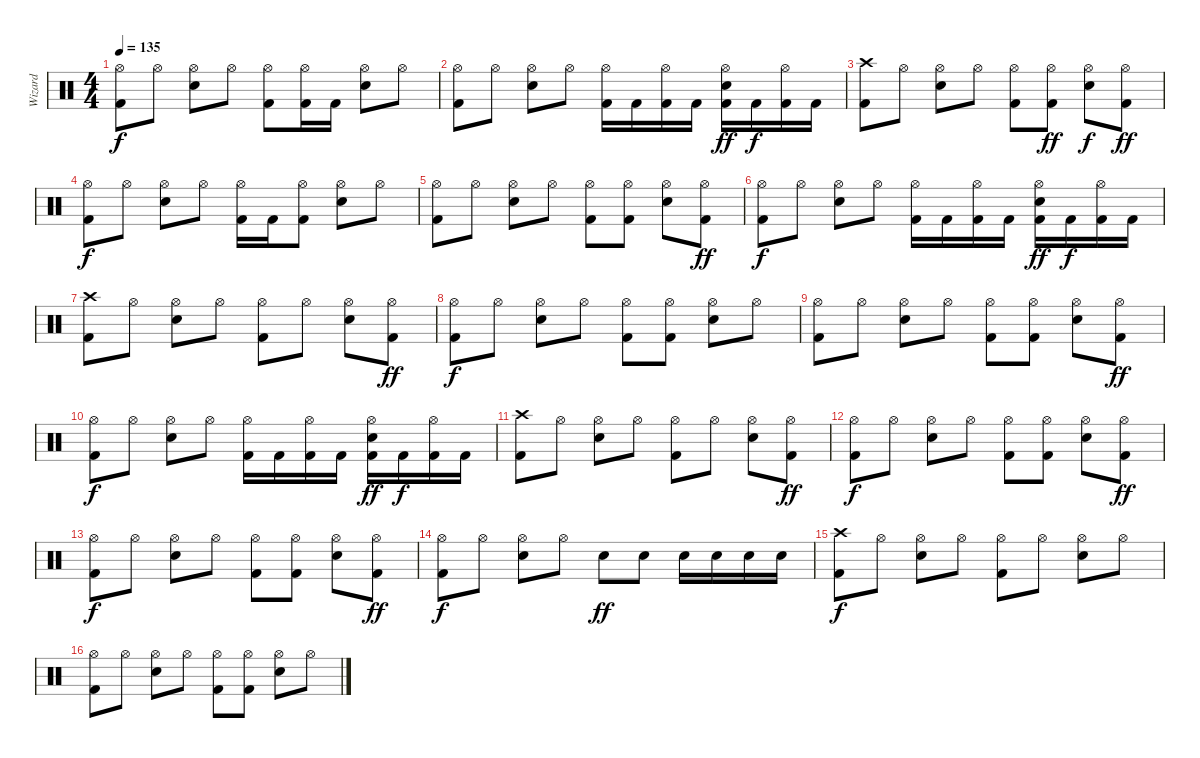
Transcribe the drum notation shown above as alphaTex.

\track ("Wizard" "Wizard") {instrument percussion}
\staff {score}
\articulation defaults
\ts (4 4)
\tempo 135
\clef neutral
\ks c
("Hi-Hat (open)" "Kick (hit) 2").8{dy f} "Hi-Hat (open)".8 ("Hi-Hat (open)" "Snare (hit) 2").8 "Hi-Hat (open)".8 ("Hi-Hat (open)" "Kick (hit) 2").8 ("Hi-Hat (open)" "Kick (hit) 2").16 "Kick (hit) 2".16 ("Hi-Hat (open)" "Snare (hit) 2").8 "Hi-Hat (open)".8 |
("Hi-Hat (open)" "Kick (hit) 2").8 "Hi-Hat (open)".8 ("Hi-Hat (open)" "Snare (hit) 2").8 "Hi-Hat (open)".8 ("Hi-Hat (open)" "Kick (hit) 2").16 "Kick (hit) 2".16 ("Hi-Hat (open)" "Kick (hit) 2").16 "Kick (hit) 2".16 ("Hi-Hat (open)" "Snare (hit) 2" "Kick (hit) 2").16{dy ff} "Kick (hit) 2".16{dy f} ("Hi-Hat (open)" "Kick (hit) 2").16 "Kick (hit) 2".16 |
("Crash high (hit)" "Kick (hit) 2").8 "Hi-Hat (open)".8 ("Hi-Hat (open)" "Snare (hit) 2").8 "Hi-Hat (open)".8 ("Hi-Hat (open)" "Kick (hit) 2").8 ("Hi-Hat (open)" "Kick (hit) 2").8{dy ff} ("Hi-Hat (open)" "Snare (hit) 2").8{dy f} ("Hi-Hat (open)" "Kick (hit) 2").8{dy ff} |
("Hi-Hat (open)" "Kick (hit) 2").8{dy f} "Hi-Hat (open)".8 ("Hi-Hat (open)" "Snare (hit) 2").8 "Hi-Hat (open)".8 ("Hi-Hat (open)" "Kick (hit) 2").16 "Kick (hit) 2".16 ("Hi-Hat (open)" "Kick (hit) 2").8 ("Hi-Hat (open)" "Snare (hit) 2").8 "Hi-Hat (open)".8 |
("Hi-Hat (open)" "Kick (hit) 2").8 "Hi-Hat (open)".8 ("Hi-Hat (open)" "Snare (hit) 2").8 "Hi-Hat (open)".8 ("Hi-Hat (open)" "Kick (hit) 2").8 ("Hi-Hat (open)" "Kick (hit) 2").8 ("Hi-Hat (open)" "Snare (hit) 2").8 ("Hi-Hat (open)" "Kick (hit) 2").8{dy ff} |
("Hi-Hat (open)" "Kick (hit) 2").8{dy f} "Hi-Hat (open)".8 ("Hi-Hat (open)" "Snare (hit) 2").8 "Hi-Hat (open)".8 ("Hi-Hat (open)" "Kick (hit) 2").16 "Kick (hit) 2".16 ("Hi-Hat (open)" "Kick (hit) 2").16 "Kick (hit) 2".16 ("Hi-Hat (open)" "Snare (hit) 2" "Kick (hit) 2").16{dy ff} "Kick (hit) 2".16{dy f} ("Hi-Hat (open)" "Kick (hit) 2").16 "Kick (hit) 2".16 |
("Crash high (hit)" "Kick (hit) 2").8 "Hi-Hat (open)".8 ("Hi-Hat (open)" "Snare (hit) 2").8 "Hi-Hat (open)".8 ("Hi-Hat (open)" "Kick (hit) 2").8 "Hi-Hat (open)".8 ("Hi-Hat (open)" "Snare (hit) 2").8 ("Hi-Hat (open)" "Kick (hit) 2").8{dy ff} |
("Hi-Hat (open)" "Kick (hit) 2").8{dy f} "Hi-Hat (open)".8 ("Hi-Hat (open)" "Snare (hit) 2").8 "Hi-Hat (open)".8 ("Hi-Hat (open)" "Kick (hit) 2").8 ("Hi-Hat (open)" "Kick (hit) 2").8 ("Hi-Hat (open)" "Snare (hit) 2").8 "Hi-Hat (open)".8 |
("Hi-Hat (open)" "Kick (hit) 2").8 "Hi-Hat (open)".8 ("Hi-Hat (open)" "Snare (hit) 2").8 "Hi-Hat (open)".8 ("Hi-Hat (open)" "Kick (hit) 2").8 ("Hi-Hat (open)" "Kick (hit) 2").8 ("Hi-Hat (open)" "Snare (hit) 2").8 ("Hi-Hat (open)" "Kick (hit) 2").8{dy ff} |
("Hi-Hat (open)" "Kick (hit) 2").8{dy f} "Hi-Hat (open)".8 ("Hi-Hat (open)" "Snare (hit) 2").8 "Hi-Hat (open)".8 ("Hi-Hat (open)" "Kick (hit) 2").16 "Kick (hit) 2".16 ("Hi-Hat (open)" "Kick (hit) 2").16 "Kick (hit) 2".16 ("Hi-Hat (open)" "Snare (hit) 2" "Kick (hit) 2").16{dy ff} "Kick (hit) 2".16{dy f} ("Hi-Hat (open)" "Kick (hit) 2").16 "Kick (hit) 2".16 |
("Crash high (hit)" "Kick (hit) 2").8 "Hi-Hat (open)".8 ("Hi-Hat (open)" "Snare (hit) 2").8 "Hi-Hat (open)".8 ("Hi-Hat (open)" "Kick (hit) 2").8 "Hi-Hat (open)".8 ("Hi-Hat (open)" "Snare (hit) 2").8 ("Hi-Hat (open)" "Kick (hit) 2").8{dy ff} |
("Hi-Hat (open)" "Kick (hit) 2").8{dy f} "Hi-Hat (open)".8 ("Hi-Hat (open)" "Snare (hit) 2").8 "Hi-Hat (open)".8 ("Hi-Hat (open)" "Kick (hit) 2").8 ("Hi-Hat (open)" "Kick (hit) 2").8 ("Hi-Hat (open)" "Snare (hit) 2").8 ("Hi-Hat (open)" "Kick (hit) 2").8{dy ff} |
("Hi-Hat (open)" "Kick (hit) 2").8{dy f} "Hi-Hat (open)".8 ("Hi-Hat (open)" "Snare (hit) 2").8 "Hi-Hat (open)".8 ("Hi-Hat (open)" "Kick (hit) 2").8 ("Hi-Hat (open)" "Kick (hit) 2").8 ("Hi-Hat (open)" "Snare (hit) 2").8 ("Hi-Hat (open)" "Kick (hit) 2").8{dy ff} |
("Hi-Hat (open)" "Kick (hit) 2").8{dy f} "Hi-Hat (open)".8 ("Hi-Hat (open)" "Snare (hit) 2").8 "Hi-Hat (open)".8 "Snare (hit) 2".8{dy ff} "Snare (hit) 2".8 "Snare (hit) 2".16 "Snare (hit) 2".16 "Snare (hit) 2".16 "Snare (hit) 2".16 |
("Crash high (hit)" "Kick (hit) 2").8{dy f} "Hi-Hat (open)".8 ("Hi-Hat (open)" "Snare (hit) 2").8 "Hi-Hat (open)".8 ("Hi-Hat (open)" "Kick (hit) 2").8 "Hi-Hat (open)".8 ("Hi-Hat (open)" "Snare (hit) 2").8 "Hi-Hat (open)".8 |
("Hi-Hat (open)" "Kick (hit) 2").8 "Hi-Hat (open)".8 ("Hi-Hat (open)" "Snare (hit) 2").8 "Hi-Hat (open)".8 ("Hi-Hat (open)" "Kick (hit) 2").8 ("Hi-Hat (open)" "Kick (hit) 2").8 ("Hi-Hat (open)" "Snare (hit) 2").8 "Hi-Hat (open)".8
